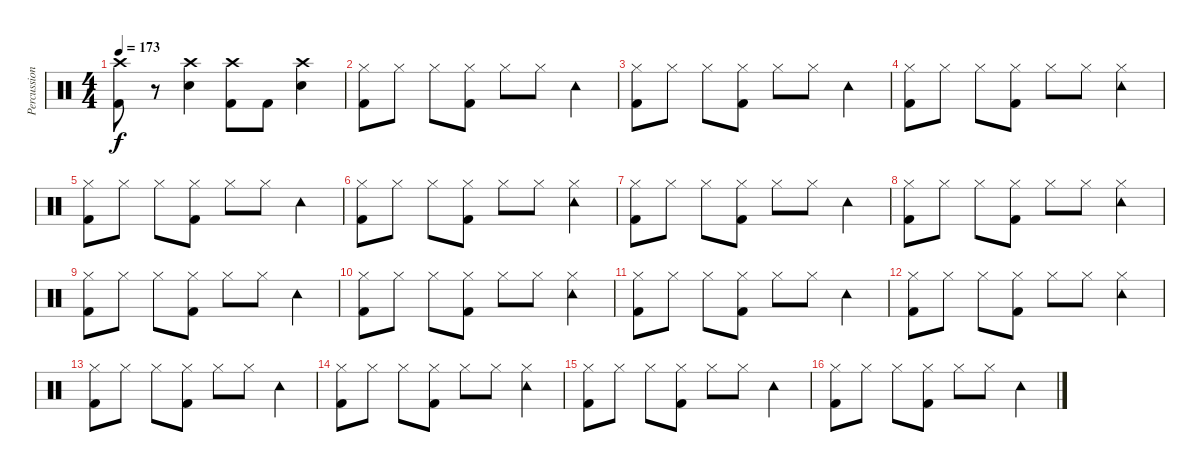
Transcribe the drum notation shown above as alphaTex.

\track ("Percussion" "Percussion") {instrument percussion}
\staff {score}
\articulation defaults
\ts (4 4)
\tempo 173
\clef neutral
\ks c
("Kick (hit) 2" "Crash high (hit)").8{dy f} r.8 ("Electric Snare (hit)" "Crash high (hit)").4 ("Kick (hit) 2" "Crash high (hit)").8 "Kick (hit) 2".8 ("Electric Snare (hit)" "Crash high (hit)").4 |
("Kick (hit) 2" "Hi-Hat (closed)").8 "Hi-Hat (closed)".8 "Hi-Hat (closed)".8 ("Kick (hit) 2" "Hi-Hat (closed)").8 "Hi-Hat (closed)".8 "Hi-Hat (closed)".8 "Tambourine (hit)".4 |
("Kick (hit) 2" "Hi-Hat (closed)").8 "Hi-Hat (closed)".8 "Hi-Hat (closed)".8 ("Kick (hit) 2" "Hi-Hat (closed)").8 "Hi-Hat (closed)".8 "Hi-Hat (closed)".8 "Tambourine (hit)".4 |
("Kick (hit) 2" "Hi-Hat (closed)").8 "Hi-Hat (closed)".8 "Hi-Hat (closed)".8 ("Kick (hit) 2" "Hi-Hat (closed)").8 "Hi-Hat (closed)".8 "Hi-Hat (closed)".8 ("Hi-Hat (closed)" "Tambourine (hit)").4 |
("Kick (hit) 2" "Hi-Hat (closed)").8 "Hi-Hat (closed)".8 "Hi-Hat (closed)".8 ("Kick (hit) 2" "Hi-Hat (closed)").8 "Hi-Hat (closed)".8 "Hi-Hat (closed)".8 "Tambourine (hit)".4 |
("Kick (hit) 2" "Hi-Hat (closed)").8 "Hi-Hat (closed)".8 "Hi-Hat (closed)".8 ("Kick (hit) 2" "Hi-Hat (closed)").8 "Hi-Hat (closed)".8 "Hi-Hat (closed)".8 ("Hi-Hat (closed)" "Tambourine (hit)").4 |
("Kick (hit) 2" "Hi-Hat (closed)").8 "Hi-Hat (closed)".8 "Hi-Hat (closed)".8 ("Kick (hit) 2" "Hi-Hat (closed)").8 "Hi-Hat (closed)".8 "Hi-Hat (closed)".8 "Tambourine (hit)".4 |
("Kick (hit) 2" "Hi-Hat (closed)").8 "Hi-Hat (closed)".8 "Hi-Hat (closed)".8 ("Kick (hit) 2" "Hi-Hat (closed)").8 "Hi-Hat (closed)".8 "Hi-Hat (closed)".8 ("Hi-Hat (closed)" "Tambourine (hit)").4 |
("Kick (hit) 2" "Hi-Hat (closed)").8 "Hi-Hat (closed)".8 "Hi-Hat (closed)".8 ("Kick (hit) 2" "Hi-Hat (closed)").8 "Hi-Hat (closed)".8 "Hi-Hat (closed)".8 "Tambourine (hit)".4 |
("Kick (hit) 2" "Hi-Hat (closed)").8 "Hi-Hat (closed)".8 "Hi-Hat (closed)".8 ("Kick (hit) 2" "Hi-Hat (closed)").8 "Hi-Hat (closed)".8 "Hi-Hat (closed)".8 ("Hi-Hat (closed)" "Tambourine (hit)").4 |
("Kick (hit) 2" "Hi-Hat (closed)").8 "Hi-Hat (closed)".8 "Hi-Hat (closed)".8 ("Kick (hit) 2" "Hi-Hat (closed)").8 "Hi-Hat (closed)".8 "Hi-Hat (closed)".8 "Tambourine (hit)".4 |
("Kick (hit) 2" "Hi-Hat (closed)").8 "Hi-Hat (closed)".8 "Hi-Hat (closed)".8 ("Kick (hit) 2" "Hi-Hat (closed)").8 "Hi-Hat (closed)".8 "Hi-Hat (closed)".8 ("Hi-Hat (closed)" "Tambourine (hit)").4 |
("Kick (hit) 2" "Hi-Hat (closed)").8 "Hi-Hat (closed)".8 "Hi-Hat (closed)".8 ("Kick (hit) 2" "Hi-Hat (closed)").8 "Hi-Hat (closed)".8 "Hi-Hat (closed)".8 "Tambourine (hit)".4 |
("Kick (hit) 2" "Hi-Hat (closed)").8 "Hi-Hat (closed)".8 "Hi-Hat (closed)".8 ("Kick (hit) 2" "Hi-Hat (closed)").8 "Hi-Hat (closed)".8 "Hi-Hat (closed)".8 ("Hi-Hat (closed)" "Tambourine (hit)").4 |
("Kick (hit) 2" "Hi-Hat (closed)").8 "Hi-Hat (closed)".8 "Hi-Hat (closed)".8 ("Kick (hit) 2" "Hi-Hat (closed)").8 "Hi-Hat (closed)".8 "Hi-Hat (closed)".8 "Tambourine (hit)".4 |
("Kick (hit) 2" "Hi-Hat (closed)").8 "Hi-Hat (closed)".8 "Hi-Hat (closed)".8 ("Kick (hit) 2" "Hi-Hat (closed)").8 "Hi-Hat (closed)".8 "Hi-Hat (closed)".8 "Tambourine (hit)".4
